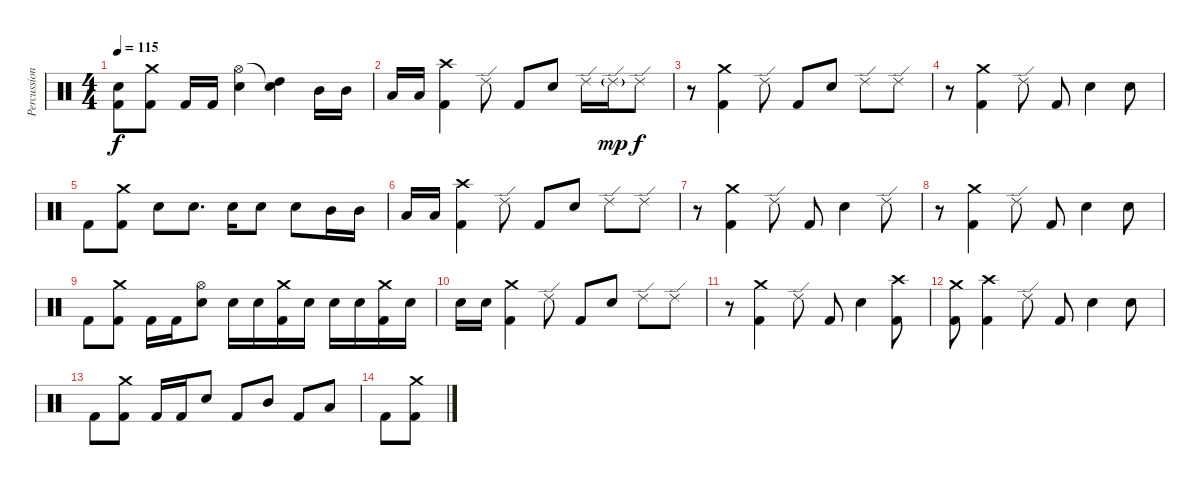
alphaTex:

\track ("Percussion" "Percussion") {instrument percussion}
\staff {score}
\articulation defaults
\ts (4 4)
\tempo 115
\clef neutral
\ks c
("Snare (hit)"{t} "Kick (hit) 2").8{dy f} ("Crash medium (hit)" "Kick (hit) 2").8 "Kick (hit) 2".16 "Kick (hit) 2".16 ("Hi-Hat (open)" "Snare (hit) 2").4 ("Snare (hit)"{t} "High Tom (hit)").4 "Mid Tom (hit)".16 "Mid Tom (hit)".16 |
"Low Tom (hit)".16 "Low Tom (hit)".16 ("Crash high (hit)" "Kick (hit) 2").4 "Ride (edge) 2".8 "Kick (hit) 2".8 "Snare (hit) 2".8 "Ride (edge) 2".16 "Ride (edge) 2"{g}.16{dy mp} "Ride (edge) 2".8{dy f} |
r.8 ("Crash medium (hit)" "Kick (hit) 2").4 "Ride (edge) 2".8 "Kick (hit) 2".8 "Snare (hit) 2".8 "Ride (edge) 2".8 "Ride (edge) 2".8 |
r.8 ("Crash medium (hit)" "Kick (hit) 2").4 "Ride (edge) 2".8 "Kick (hit) 2".8 "Snare (hit) 2".4 "Snare (hit) 2".8 |
"Kick (hit) 2".8 ("Crash medium (hit)" "Kick (hit) 2").8 "Snare (hit) 2".8 "Snare (hit) 2".8{d} "Snare (hit) 2".16 "Snare (hit) 2".8 "Snare (hit) 2".8 "Mid Tom (hit)".16 "Mid Tom (hit)".16 |
"Low Tom (hit)".16 "Low Tom (hit)".16 ("Crash high (hit)" "Kick (hit) 2").4 "Ride (edge) 2".8 "Kick (hit) 2".8 "Snare (hit) 2".8 "Ride (edge) 2".8 "Ride (edge) 2".8 |
r.8 ("Crash medium (hit)" "Kick (hit) 2").4 "Ride (edge) 2".8 "Kick (hit) 2".8 "Snare (hit) 2".4 "Ride (edge) 2".8 |
r.8 ("Crash medium (hit)" "Kick (hit) 2").4 "Ride (edge) 2".8 "Kick (hit) 2".8 "Snare (hit) 2".4 "Snare (hit) 2".8 |
"Kick (hit) 2".8 ("Crash medium (hit)" "Kick (hit) 2").8 "Kick (hit) 2".16 "Kick (hit) 2".16 ("Hi-Hat (open)" "Snare (hit) 2").8 "Snare (hit) 2".16 "Snare (hit) 2".16 ("Crash medium (hit)" "Kick (hit) 2").16 "Snare (hit) 2".16 "Snare (hit) 2".16 "Snare (hit) 2".16 ("Crash medium (hit)" "Kick (hit) 2").16 "Snare (hit) 2".16 |
"Snare (hit) 2".16 "Snare (hit) 2".16 ("Crash medium (hit)" "Kick (hit) 2").4 "Ride (edge) 2".8 "Kick (hit) 2".8 "Snare (hit) 2".8 "Ride (edge) 2".8 "Ride (edge) 2".8 |
r.8 ("Crash medium (hit)" "Kick (hit) 2").4 "Ride (edge) 2".8 "Kick (hit) 2".8 "Snare (hit) 2".4 ("Crash high (hit)" "Kick (hit) 2").8 |
("Crash medium (hit)" "Kick (hit) 2").8 ("Crash high (hit)" "Kick (hit) 2").4 "Ride (edge) 2".8 "Kick (hit) 2".8 "Snare (hit) 2".4 "Snare (hit) 2".8 |
"Kick (hit) 2".8 ("Crash medium (hit)" "Kick (hit) 2").8 "Kick (hit) 2".16 "Kick (hit) 2".16 "Snare (hit) 2".8 "Kick (hit) 2".8 "Mid Tom (hit)".8 "Kick (hit) 2".8 "Low Tom (hit)".8 |
"Kick (hit) 2".8 ("Crash medium (hit)" "Kick (hit) 2").8
